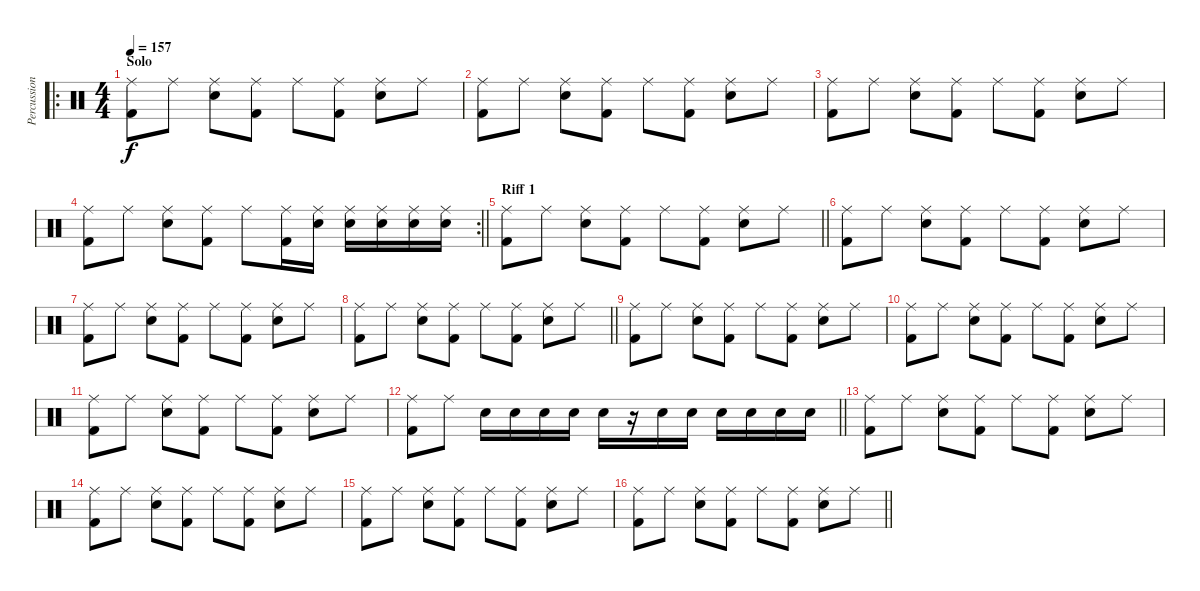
\track ("Percussion" "Percussion") {instrument percussion}
\staff {score}
\articulation defaults
\ro
\ts (4 4)
\section ("" "Solo")
\tempo 157
\clef neutral
\ks c
("Kick (hit) 2" "Ride (middle)").8{dy f} "Ride (middle)".8 ("Snare (hit) 2" "Ride (middle)").8 ("Kick (hit) 2" "Ride (middle)").8 "Ride (middle)".8 ("Kick (hit) 2" "Ride (middle)").8 ("Snare (hit) 2" "Ride (middle)").8 "Ride (middle)".8 |
("Kick (hit) 2" "Ride (middle)").8 "Ride (middle)".8 ("Snare (hit) 2" "Ride (middle)").8 ("Kick (hit) 2" "Ride (middle)").8 "Ride (middle)".8 ("Kick (hit) 2" "Ride (middle)").8 ("Snare (hit) 2" "Ride (middle)").8 "Ride (middle)".8 |
("Kick (hit) 2" "Ride (middle)").8 "Ride (middle)".8 ("Snare (hit) 2" "Ride (middle)").8 ("Kick (hit) 2" "Ride (middle)").8 "Ride (middle)".8 ("Kick (hit) 2" "Ride (middle)").8 ("Snare (hit) 2" "Ride (middle)").8 "Ride (middle)".8 |
\rc 2
\barLineRight lightlight
("Kick (hit) 2" "Ride (middle)").8 "Ride (middle)".8 ("Snare (hit) 2" "Ride (middle)").8 ("Kick (hit) 2" "Ride (middle)").8 "Ride (middle)".8 ("Kick (hit) 2" "Ride (middle)").16 ("Snare (hit) 2" "Ride (middle)").16 ("Snare (hit) 2" "Ride (middle)").16 ("Snare (hit) 2" "Ride (middle)").16 ("Snare (hit) 2" "Ride (middle)").16 ("Snare (hit) 2" "Ride (middle)").16 |
\section ("" "Riff 1")
\barLineRight lightlight
("Kick (hit) 2" "Ride (middle)").8 "Ride (middle)".8 ("Snare (hit) 2" "Ride (middle)").8 ("Kick (hit) 2" "Ride (middle)").8 "Ride (middle)".8 ("Kick (hit) 2" "Ride (middle)").8 ("Snare (hit) 2" "Ride (middle)").8 "Ride (middle)".8 |
("Kick (hit) 2" "Ride (middle)").8 "Ride (middle)".8 ("Snare (hit) 2" "Ride (middle)").8 ("Kick (hit) 2" "Ride (middle)").8 "Ride (middle)".8 ("Kick (hit) 2" "Ride (middle)").8 ("Snare (hit) 2" "Ride (middle)").8 "Ride (middle)".8 |
("Kick (hit) 2" "Ride (middle)").8 "Ride (middle)".8 ("Snare (hit) 2" "Ride (middle)").8 ("Kick (hit) 2" "Ride (middle)").8 "Ride (middle)".8 ("Kick (hit) 2" "Ride (middle)").8 ("Snare (hit) 2" "Ride (middle)").8 "Ride (middle)".8 |
\barLineRight lightlight
("Kick (hit) 2" "Ride (middle)").8 "Ride (middle)".8 ("Snare (hit) 2" "Ride (middle)").8 ("Kick (hit) 2" "Ride (middle)").8 "Ride (middle)".8 ("Kick (hit) 2" "Ride (middle)").8 ("Snare (hit) 2" "Ride (middle)").8 "Ride (middle)".8 |
("Kick (hit) 2" "Ride (middle)").8 "Ride (middle)".8 ("Snare (hit) 2" "Ride (middle)").8 ("Kick (hit) 2" "Ride (middle)").8 "Ride (middle)".8 ("Kick (hit) 2" "Ride (middle)").8 ("Snare (hit) 2" "Ride (middle)").8 "Ride (middle)".8 |
("Kick (hit) 2" "Ride (middle)").8 "Ride (middle)".8 ("Snare (hit) 2" "Ride (middle)").8 ("Kick (hit) 2" "Ride (middle)").8 "Ride (middle)".8 ("Kick (hit) 2" "Ride (middle)").8 ("Snare (hit) 2" "Ride (middle)").8 "Ride (middle)".8 |
("Kick (hit) 2" "Ride (middle)").8 "Ride (middle)".8 ("Snare (hit) 2" "Ride (middle)").8 ("Kick (hit) 2" "Ride (middle)").8 "Ride (middle)".8 ("Kick (hit) 2" "Ride (middle)").8 ("Snare (hit) 2" "Ride (middle)").8 "Ride (middle)".8 |
\barLineRight lightlight
("Kick (hit) 2" "Ride (middle)").8 "Ride (middle)".8 "Snare (hit) 2".16 "Snare (hit) 2".16 "Snare (hit) 2".16 "Snare (hit) 2".16 "Snare (hit) 2".16 r.16 "Snare (hit) 2".16 "Snare (hit) 2".16 "Snare (hit) 2".16 "Snare (hit) 2".16 "Snare (hit) 2".16 "Snare (hit) 2".16 |
("Kick (hit) 2" "Ride (middle)").8 "Ride (middle)".8 ("Snare (hit) 2" "Ride (middle)").8 ("Kick (hit) 2" "Ride (middle)").8 "Ride (middle)".8 ("Kick (hit) 2" "Ride (middle)").8 ("Snare (hit) 2" "Ride (middle)").8 "Ride (middle)".8 |
("Kick (hit) 2" "Ride (middle)").8 "Ride (middle)".8 ("Snare (hit) 2" "Ride (middle)").8 ("Kick (hit) 2" "Ride (middle)").8 "Ride (middle)".8 ("Kick (hit) 2" "Ride (middle)").8 ("Snare (hit) 2" "Ride (middle)").8 "Ride (middle)".8 |
("Kick (hit) 2" "Ride (middle)").8 "Ride (middle)".8 ("Snare (hit) 2" "Ride (middle)").8 ("Kick (hit) 2" "Ride (middle)").8 "Ride (middle)".8 ("Kick (hit) 2" "Ride (middle)").8 ("Snare (hit) 2" "Ride (middle)").8 "Ride (middle)".8 |
\barLineRight lightlight
("Kick (hit) 2" "Ride (middle)").8 "Ride (middle)".8 ("Snare (hit) 2" "Ride (middle)").8 ("Kick (hit) 2" "Ride (middle)").8 "Ride (middle)".8 ("Kick (hit) 2" "Ride (middle)").8 ("Snare (hit) 2" "Ride (middle)").8 "Ride (middle)".8
